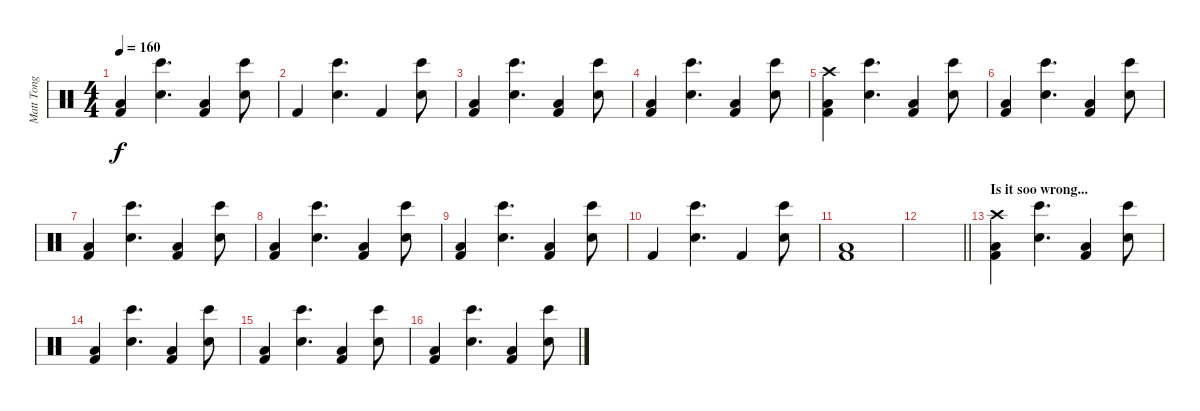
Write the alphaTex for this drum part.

\track ("Matt Tong - Drums" "Matt Tong ") {instrument percussion}
\staff {score}
\articulation defaults
\ts (4 4)
\tempo 160
\clef neutral
\ks c
("Kick (hit) 2" "Low Floor Tom (hit)").4{dy f} ("Bongo High (hit)" "Snare (hit) 2").4{d} ("Kick (hit) 2" "Low Floor Tom (hit)").4 ("Bongo High (hit)" "Snare (hit) 2").8 |
"Kick (hit) 2".4 ("Bongo High (hit)" "Snare (hit) 2").4{d} "Kick (hit) 2".4 ("Bongo High (hit)" "Snare (hit) 2").8 |
("Kick (hit) 2" "Low Floor Tom (hit)").4 ("Bongo High (hit)" "Snare (hit) 2").4{d} ("Kick (hit) 2" "Low Floor Tom (hit)").4 ("Bongo High (hit)" "Snare (hit) 2").8 |
("Kick (hit) 2" "Low Floor Tom (hit)").4 ("Bongo High (hit)" "Snare (hit) 2").4{d} ("Kick (hit) 2" "Low Floor Tom (hit)").4 ("Bongo High (hit)" "Snare (hit) 2").8 |
("Kick (hit) 2" "Low Floor Tom (hit)" "Crash high (hit)").4 ("Bongo High (hit)" "Snare (hit) 2").4{d} ("Kick (hit) 2" "Low Floor Tom (hit)").4 ("Bongo High (hit)" "Snare (hit) 2").8 |
("Kick (hit) 2" "Low Floor Tom (hit)").4 ("Bongo High (hit)" "Snare (hit) 2").4{d} ("Kick (hit) 2" "Low Floor Tom (hit)").4 ("Bongo High (hit)" "Snare (hit) 2").8 |
("Kick (hit) 2" "Low Floor Tom (hit)").4 ("Bongo High (hit)" "Snare (hit) 2").4{d} ("Kick (hit) 2" "Low Floor Tom (hit)").4 ("Bongo High (hit)" "Snare (hit) 2").8 |
("Kick (hit) 2" "Low Floor Tom (hit)").4 ("Bongo High (hit)" "Snare (hit) 2").4{d} ("Kick (hit) 2" "Low Floor Tom (hit)").4 ("Bongo High (hit)" "Snare (hit) 2").8 |
("Kick (hit) 2" "Low Floor Tom (hit)").4 ("Bongo High (hit)" "Snare (hit) 2").4{d} ("Kick (hit) 2" "Low Floor Tom (hit)").4 ("Bongo High (hit)" "Snare (hit) 2").8 |
"Kick (hit) 2".4 ("Bongo High (hit)" "Snare (hit) 2").4{d} "Kick (hit) 2".4 ("Bongo High (hit)" "Snare (hit) 2").8 |
("Kick (hit) 2" "Low Floor Tom (hit)").1 |
\barLineRight lightlight
|
\section ("" "Is it soo wrong...")
("Kick (hit) 2" "Low Floor Tom (hit)" "Crash high (hit)").4 ("Bongo High (hit)" "Snare (hit) 2").4{d} ("Kick (hit) 2" "Low Floor Tom (hit)").4 ("Bongo High (hit)" "Snare (hit) 2").8 |
("Kick (hit) 2" "Low Floor Tom (hit)").4 ("Bongo High (hit)" "Snare (hit) 2").4{d} ("Kick (hit) 2" "Low Floor Tom (hit)").4 ("Bongo High (hit)" "Snare (hit) 2").8 |
("Kick (hit) 2" "Low Floor Tom (hit)").4 ("Bongo High (hit)" "Snare (hit) 2").4{d} ("Kick (hit) 2" "Low Floor Tom (hit)").4 ("Bongo High (hit)" "Snare (hit) 2").8 |
("Kick (hit) 2" "Low Floor Tom (hit)").4 ("Bongo High (hit)" "Snare (hit) 2").4{d} ("Kick (hit) 2" "Low Floor Tom (hit)").4 ("Bongo High (hit)" "Snare (hit) 2").8
